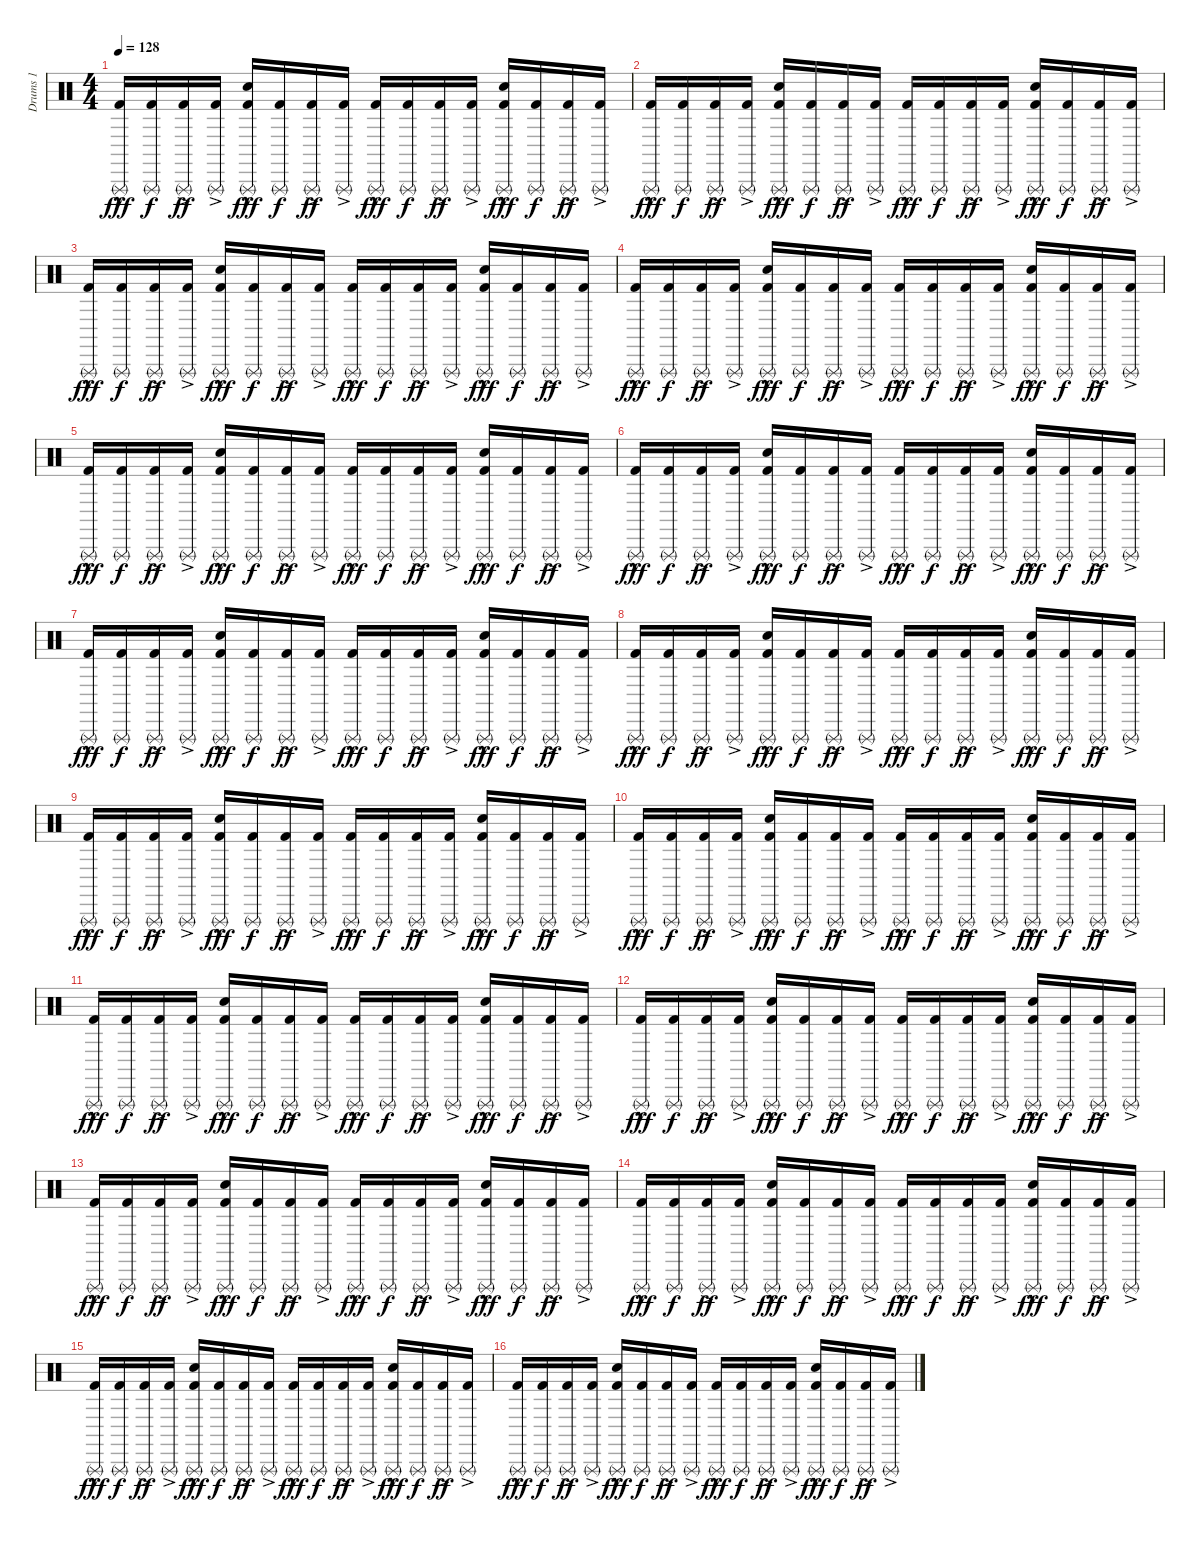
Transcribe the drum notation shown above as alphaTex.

\track ("Drums 1" "Drums 1") {instrument percussion}
\staff {score}
\articulation defaults
\ts (4 4)
\tempo 128
\clef neutral
\ks c
("Triangle (rnute)"{hac} "Kick (hit) 2"{hac}).16{dy fff} ("Triangle (rnute)" "Kick (hit) 2").16{dy f} ("Triangle (rnute)"{ac} "Kick (hit) 2").16{dy ff} ("Triangle (rnute)"{ac} "Kick (hit) 2").16 ("Triangle (rnute)"{hac} "Snare (hit) 2"{hac} "Kick (hit) 2"{hac}).16{dy fff} ("Triangle (rnute)" "Kick (hit) 2").16{dy f} ("Triangle (rnute)"{ac} "Kick (hit) 2").16{dy ff} ("Triangle (rnute)"{ac} "Kick (hit) 2").16 ("Triangle (rnute)"{hac} "Kick (hit) 2"{hac}).16{dy fff} ("Triangle (rnute)" "Kick (hit) 2").16{dy f} ("Triangle (rnute)"{ac} "Kick (hit) 2").16{dy ff} ("Triangle (rnute)"{ac} "Kick (hit) 2").16 ("Triangle (rnute)"{hac} "Snare (hit) 2"{hac} "Kick (hit) 2"{hac}).16{dy fff} ("Triangle (rnute)" "Kick (hit) 2").16{dy f} ("Triangle (rnute)"{ac} "Kick (hit) 2").16{dy ff} ("Triangle (rnute)"{ac} "Kick (hit) 2").16 |
("Triangle (rnute)"{hac} "Kick (hit) 2"{hac}).16{dy fff} ("Triangle (rnute)" "Kick (hit) 2").16{dy f} ("Triangle (rnute)"{ac} "Kick (hit) 2").16{dy ff} ("Triangle (rnute)"{ac} "Kick (hit) 2").16 ("Triangle (rnute)"{hac} "Snare (hit) 2"{hac} "Kick (hit) 2"{hac}).16{dy fff} ("Triangle (rnute)" "Kick (hit) 2").16{dy f} ("Triangle (rnute)"{ac} "Kick (hit) 2").16{dy ff} ("Triangle (rnute)"{ac} "Kick (hit) 2").16 ("Triangle (rnute)"{hac} "Kick (hit) 2"{hac}).16{dy fff} ("Triangle (rnute)" "Kick (hit) 2").16{dy f} ("Triangle (rnute)"{ac} "Kick (hit) 2").16{dy ff} ("Triangle (rnute)"{ac} "Kick (hit) 2").16 ("Triangle (rnute)"{hac} "Snare (hit) 2"{hac} "Kick (hit) 2"{hac}).16{dy fff} ("Triangle (rnute)" "Kick (hit) 2").16{dy f} ("Triangle (rnute)"{ac} "Kick (hit) 2").16{dy ff} ("Triangle (rnute)"{ac} "Kick (hit) 2").16 |
("Triangle (rnute)"{hac} "Kick (hit) 2"{hac}).16{dy fff} ("Triangle (rnute)" "Kick (hit) 2").16{dy f} ("Triangle (rnute)"{ac} "Kick (hit) 2").16{dy ff} ("Triangle (rnute)"{ac} "Kick (hit) 2").16 ("Triangle (rnute)"{hac} "Snare (hit) 2"{hac} "Kick (hit) 2"{hac}).16{dy fff} ("Triangle (rnute)" "Kick (hit) 2").16{dy f} ("Triangle (rnute)"{ac} "Kick (hit) 2").16{dy ff} ("Triangle (rnute)"{ac} "Kick (hit) 2").16 ("Triangle (rnute)"{hac} "Kick (hit) 2"{hac}).16{dy fff} ("Triangle (rnute)" "Kick (hit) 2").16{dy f} ("Triangle (rnute)"{ac} "Kick (hit) 2").16{dy ff} ("Triangle (rnute)"{ac} "Kick (hit) 2").16 ("Triangle (rnute)"{hac} "Snare (hit) 2"{hac} "Kick (hit) 2"{hac}).16{dy fff} ("Triangle (rnute)" "Kick (hit) 2").16{dy f} ("Triangle (rnute)"{ac} "Kick (hit) 2").16{dy ff} ("Triangle (rnute)"{ac} "Kick (hit) 2").16 |
("Triangle (rnute)"{hac} "Kick (hit) 2"{hac}).16{dy fff} ("Triangle (rnute)" "Kick (hit) 2").16{dy f} ("Triangle (rnute)"{ac} "Kick (hit) 2").16{dy ff} ("Triangle (rnute)"{ac} "Kick (hit) 2").16 ("Triangle (rnute)"{hac} "Snare (hit) 2"{hac} "Kick (hit) 2"{hac}).16{dy fff} ("Triangle (rnute)" "Kick (hit) 2").16{dy f} ("Triangle (rnute)"{ac} "Kick (hit) 2").16{dy ff} ("Triangle (rnute)"{ac} "Kick (hit) 2").16 ("Triangle (rnute)"{hac} "Kick (hit) 2"{hac}).16{dy fff} ("Triangle (rnute)" "Kick (hit) 2").16{dy f} ("Triangle (rnute)"{ac} "Kick (hit) 2").16{dy ff} ("Triangle (rnute)"{ac} "Kick (hit) 2").16 ("Triangle (rnute)"{hac} "Snare (hit) 2"{hac} "Kick (hit) 2"{hac}).16{dy fff} ("Triangle (rnute)" "Kick (hit) 2").16{dy f} ("Triangle (rnute)"{ac} "Kick (hit) 2").16{dy ff} ("Triangle (rnute)"{ac} "Kick (hit) 2").16 |
("Triangle (rnute)"{hac} "Kick (hit) 2"{hac}).16{dy fff} ("Triangle (rnute)" "Kick (hit) 2").16{dy f} ("Triangle (rnute)"{ac} "Kick (hit) 2").16{dy ff} ("Triangle (rnute)"{ac} "Kick (hit) 2").16 ("Triangle (rnute)"{hac} "Snare (hit) 2"{hac} "Kick (hit) 2"{hac}).16{dy fff} ("Triangle (rnute)" "Kick (hit) 2").16{dy f} ("Triangle (rnute)"{ac} "Kick (hit) 2").16{dy ff} ("Triangle (rnute)"{ac} "Kick (hit) 2").16 ("Triangle (rnute)"{hac} "Kick (hit) 2"{hac}).16{dy fff} ("Triangle (rnute)" "Kick (hit) 2").16{dy f} ("Triangle (rnute)"{ac} "Kick (hit) 2").16{dy ff} ("Triangle (rnute)"{ac} "Kick (hit) 2").16 ("Triangle (rnute)"{hac} "Snare (hit) 2"{hac} "Kick (hit) 2"{hac}).16{dy fff} ("Triangle (rnute)" "Kick (hit) 2").16{dy f} ("Triangle (rnute)"{ac} "Kick (hit) 2").16{dy ff} ("Triangle (rnute)"{ac} "Kick (hit) 2").16 |
("Triangle (rnute)"{hac} "Kick (hit) 2"{hac}).16{dy fff} ("Triangle (rnute)" "Kick (hit) 2").16{dy f} ("Triangle (rnute)"{ac} "Kick (hit) 2").16{dy ff} ("Triangle (rnute)"{ac} "Kick (hit) 2").16 ("Triangle (rnute)"{hac} "Snare (hit) 2"{hac} "Kick (hit) 2"{hac}).16{dy fff} ("Triangle (rnute)" "Kick (hit) 2").16{dy f} ("Triangle (rnute)"{ac} "Kick (hit) 2").16{dy ff} ("Triangle (rnute)"{ac} "Kick (hit) 2").16 ("Triangle (rnute)"{hac} "Kick (hit) 2"{hac}).16{dy fff} ("Triangle (rnute)" "Kick (hit) 2").16{dy f} ("Triangle (rnute)"{ac} "Kick (hit) 2").16{dy ff} ("Triangle (rnute)"{ac} "Kick (hit) 2").16 ("Triangle (rnute)"{hac} "Snare (hit) 2"{hac} "Kick (hit) 2"{hac}).16{dy fff} ("Triangle (rnute)" "Kick (hit) 2").16{dy f} ("Triangle (rnute)"{ac} "Kick (hit) 2").16{dy ff} ("Triangle (rnute)"{ac} "Kick (hit) 2").16 |
("Triangle (rnute)"{hac} "Kick (hit) 2"{hac}).16{dy fff} ("Triangle (rnute)" "Kick (hit) 2").16{dy f} ("Triangle (rnute)"{ac} "Kick (hit) 2").16{dy ff} ("Triangle (rnute)"{ac} "Kick (hit) 2").16 ("Triangle (rnute)"{hac} "Snare (hit) 2"{hac} "Kick (hit) 2"{hac}).16{dy fff} ("Triangle (rnute)" "Kick (hit) 2").16{dy f} ("Triangle (rnute)"{ac} "Kick (hit) 2").16{dy ff} ("Triangle (rnute)"{ac} "Kick (hit) 2").16 ("Triangle (rnute)"{hac} "Kick (hit) 2"{hac}).16{dy fff} ("Triangle (rnute)" "Kick (hit) 2").16{dy f} ("Triangle (rnute)"{ac} "Kick (hit) 2").16{dy ff} ("Triangle (rnute)"{ac} "Kick (hit) 2").16 ("Triangle (rnute)"{hac} "Snare (hit) 2"{hac} "Kick (hit) 2"{hac}).16{dy fff} ("Triangle (rnute)" "Kick (hit) 2").16{dy f} ("Triangle (rnute)"{ac} "Kick (hit) 2").16{dy ff} ("Triangle (rnute)"{ac} "Kick (hit) 2").16 |
("Triangle (rnute)"{hac} "Kick (hit) 2"{hac}).16{dy fff} ("Triangle (rnute)" "Kick (hit) 2").16{dy f} ("Triangle (rnute)"{ac} "Kick (hit) 2").16{dy ff} ("Triangle (rnute)"{ac} "Kick (hit) 2").16 ("Triangle (rnute)"{hac} "Snare (hit) 2"{hac} "Kick (hit) 2"{hac}).16{dy fff} ("Triangle (rnute)" "Kick (hit) 2").16{dy f} ("Triangle (rnute)"{ac} "Kick (hit) 2").16{dy ff} ("Triangle (rnute)"{ac} "Kick (hit) 2").16 ("Triangle (rnute)"{hac} "Kick (hit) 2"{hac}).16{dy fff} ("Triangle (rnute)" "Kick (hit) 2").16{dy f} ("Triangle (rnute)"{ac} "Kick (hit) 2").16{dy ff} ("Triangle (rnute)"{ac} "Kick (hit) 2").16 ("Triangle (rnute)"{hac} "Snare (hit) 2"{hac} "Kick (hit) 2"{hac}).16{dy fff} ("Triangle (rnute)" "Kick (hit) 2").16{dy f} ("Triangle (rnute)"{ac} "Kick (hit) 2").16{dy ff} ("Triangle (rnute)"{ac} "Kick (hit) 2").16 |
("Triangle (rnute)"{hac} "Kick (hit) 2"{hac}).16{dy fff} ("Triangle (rnute)" "Kick (hit) 2").16{dy f} ("Triangle (rnute)"{ac} "Kick (hit) 2").16{dy ff} ("Triangle (rnute)"{ac} "Kick (hit) 2").16 ("Triangle (rnute)"{hac} "Snare (hit) 2"{hac} "Kick (hit) 2"{hac}).16{dy fff} ("Triangle (rnute)" "Kick (hit) 2").16{dy f} ("Triangle (rnute)"{ac} "Kick (hit) 2").16{dy ff} ("Triangle (rnute)"{ac} "Kick (hit) 2").16 ("Triangle (rnute)"{hac} "Kick (hit) 2"{hac}).16{dy fff} ("Triangle (rnute)" "Kick (hit) 2").16{dy f} ("Triangle (rnute)"{ac} "Kick (hit) 2").16{dy ff} ("Triangle (rnute)"{ac} "Kick (hit) 2").16 ("Triangle (rnute)"{hac} "Snare (hit) 2"{hac} "Kick (hit) 2"{hac}).16{dy fff} ("Triangle (rnute)" "Kick (hit) 2").16{dy f} ("Triangle (rnute)"{ac} "Kick (hit) 2").16{dy ff} ("Triangle (rnute)"{ac} "Kick (hit) 2").16 |
("Triangle (rnute)"{hac} "Kick (hit) 2"{hac}).16{dy fff} ("Triangle (rnute)" "Kick (hit) 2").16{dy f} ("Triangle (rnute)"{ac} "Kick (hit) 2").16{dy ff} ("Triangle (rnute)"{ac} "Kick (hit) 2").16 ("Triangle (rnute)"{hac} "Snare (hit) 2"{hac} "Kick (hit) 2"{hac}).16{dy fff} ("Triangle (rnute)" "Kick (hit) 2").16{dy f} ("Triangle (rnute)"{ac} "Kick (hit) 2").16{dy ff} ("Triangle (rnute)"{ac} "Kick (hit) 2").16 ("Triangle (rnute)"{hac} "Kick (hit) 2"{hac}).16{dy fff} ("Triangle (rnute)" "Kick (hit) 2").16{dy f} ("Triangle (rnute)"{ac} "Kick (hit) 2").16{dy ff} ("Triangle (rnute)"{ac} "Kick (hit) 2").16 ("Triangle (rnute)"{hac} "Snare (hit) 2"{hac} "Kick (hit) 2"{hac}).16{dy fff} ("Triangle (rnute)" "Kick (hit) 2").16{dy f} ("Triangle (rnute)"{ac} "Kick (hit) 2").16{dy ff} ("Triangle (rnute)"{ac} "Kick (hit) 2").16 |
("Triangle (rnute)"{hac} "Kick (hit) 2"{hac}).16{dy fff} ("Triangle (rnute)" "Kick (hit) 2").16{dy f} ("Triangle (rnute)"{ac} "Kick (hit) 2").16{dy ff} ("Triangle (rnute)"{ac} "Kick (hit) 2").16 ("Triangle (rnute)"{hac} "Snare (hit) 2"{hac} "Kick (hit) 2"{hac}).16{dy fff} ("Triangle (rnute)" "Kick (hit) 2").16{dy f} ("Triangle (rnute)"{ac} "Kick (hit) 2").16{dy ff} ("Triangle (rnute)"{ac} "Kick (hit) 2").16 ("Triangle (rnute)"{hac} "Kick (hit) 2"{hac}).16{dy fff} ("Triangle (rnute)" "Kick (hit) 2").16{dy f} ("Triangle (rnute)"{ac} "Kick (hit) 2").16{dy ff} ("Triangle (rnute)"{ac} "Kick (hit) 2").16 ("Triangle (rnute)"{hac} "Snare (hit) 2"{hac} "Kick (hit) 2"{hac}).16{dy fff} ("Triangle (rnute)" "Kick (hit) 2").16{dy f} ("Triangle (rnute)"{ac} "Kick (hit) 2").16{dy ff} ("Triangle (rnute)"{ac} "Kick (hit) 2").16 |
("Triangle (rnute)"{hac} "Kick (hit) 2"{hac}).16{dy fff} ("Triangle (rnute)" "Kick (hit) 2").16{dy f} ("Triangle (rnute)"{ac} "Kick (hit) 2").16{dy ff} ("Triangle (rnute)"{ac} "Kick (hit) 2").16 ("Triangle (rnute)"{hac} "Snare (hit) 2"{hac} "Kick (hit) 2"{hac}).16{dy fff} ("Triangle (rnute)" "Kick (hit) 2").16{dy f} ("Triangle (rnute)"{ac} "Kick (hit) 2").16{dy ff} ("Triangle (rnute)"{ac} "Kick (hit) 2").16 ("Triangle (rnute)"{hac} "Kick (hit) 2"{hac}).16{dy fff} ("Triangle (rnute)" "Kick (hit) 2").16{dy f} ("Triangle (rnute)"{ac} "Kick (hit) 2").16{dy ff} ("Triangle (rnute)"{ac} "Kick (hit) 2").16 ("Triangle (rnute)"{hac} "Snare (hit) 2"{hac} "Kick (hit) 2"{hac}).16{dy fff} ("Triangle (rnute)" "Kick (hit) 2").16{dy f} ("Triangle (rnute)"{ac} "Kick (hit) 2").16{dy ff} ("Triangle (rnute)"{ac} "Kick (hit) 2").16 |
("Triangle (rnute)"{hac} "Kick (hit) 2"{hac}).16{dy fff} ("Triangle (rnute)" "Kick (hit) 2").16{dy f} ("Triangle (rnute)"{ac} "Kick (hit) 2").16{dy ff} ("Triangle (rnute)"{ac} "Kick (hit) 2").16 ("Triangle (rnute)"{hac} "Snare (hit) 2"{hac} "Kick (hit) 2"{hac}).16{dy fff} ("Triangle (rnute)" "Kick (hit) 2").16{dy f} ("Triangle (rnute)"{ac} "Kick (hit) 2").16{dy ff} ("Triangle (rnute)"{ac} "Kick (hit) 2").16 ("Triangle (rnute)"{hac} "Kick (hit) 2"{hac}).16{dy fff} ("Triangle (rnute)" "Kick (hit) 2").16{dy f} ("Triangle (rnute)"{ac} "Kick (hit) 2").16{dy ff} ("Triangle (rnute)"{ac} "Kick (hit) 2").16 ("Triangle (rnute)"{hac} "Snare (hit) 2"{hac} "Kick (hit) 2"{hac}).16{dy fff} ("Triangle (rnute)" "Kick (hit) 2").16{dy f} ("Triangle (rnute)"{ac} "Kick (hit) 2").16{dy ff} ("Triangle (rnute)"{ac} "Kick (hit) 2").16 |
("Triangle (rnute)"{hac} "Kick (hit) 2"{hac}).16{dy fff} ("Triangle (rnute)" "Kick (hit) 2").16{dy f} ("Triangle (rnute)"{ac} "Kick (hit) 2").16{dy ff} ("Triangle (rnute)"{ac} "Kick (hit) 2").16 ("Triangle (rnute)"{hac} "Snare (hit) 2"{hac} "Kick (hit) 2"{hac}).16{dy fff} ("Triangle (rnute)" "Kick (hit) 2").16{dy f} ("Triangle (rnute)"{ac} "Kick (hit) 2").16{dy ff} ("Triangle (rnute)"{ac} "Kick (hit) 2").16 ("Triangle (rnute)"{hac} "Kick (hit) 2"{hac}).16{dy fff} ("Triangle (rnute)" "Kick (hit) 2").16{dy f} ("Triangle (rnute)"{ac} "Kick (hit) 2").16{dy ff} ("Triangle (rnute)"{ac} "Kick (hit) 2").16 ("Triangle (rnute)"{hac} "Snare (hit) 2"{hac} "Kick (hit) 2"{hac}).16{dy fff} ("Triangle (rnute)" "Kick (hit) 2").16{dy f} ("Triangle (rnute)"{ac} "Kick (hit) 2").16{dy ff} ("Triangle (rnute)"{ac} "Kick (hit) 2").16 |
("Triangle (rnute)"{hac} "Kick (hit) 2"{hac}).16{dy fff} ("Triangle (rnute)" "Kick (hit) 2").16{dy f} ("Triangle (rnute)"{ac} "Kick (hit) 2").16{dy ff} ("Triangle (rnute)"{ac} "Kick (hit) 2").16 ("Triangle (rnute)"{hac} "Snare (hit) 2"{hac} "Kick (hit) 2"{hac}).16{dy fff} ("Triangle (rnute)" "Kick (hit) 2").16{dy f} ("Triangle (rnute)"{ac} "Kick (hit) 2").16{dy ff} ("Triangle (rnute)"{ac} "Kick (hit) 2").16 ("Triangle (rnute)"{hac} "Kick (hit) 2"{hac}).16{dy fff} ("Triangle (rnute)" "Kick (hit) 2").16{dy f} ("Triangle (rnute)"{ac} "Kick (hit) 2").16{dy ff} ("Triangle (rnute)"{ac} "Kick (hit) 2").16 ("Triangle (rnute)"{hac} "Snare (hit) 2"{hac} "Kick (hit) 2"{hac}).16{dy fff} ("Triangle (rnute)" "Kick (hit) 2").16{dy f} ("Triangle (rnute)"{ac} "Kick (hit) 2").16{dy ff} ("Triangle (rnute)"{ac} "Kick (hit) 2").16 |
("Triangle (rnute)"{hac} "Kick (hit) 2"{hac}).16{dy fff} ("Triangle (rnute)" "Kick (hit) 2").16{dy f} ("Triangle (rnute)"{ac} "Kick (hit) 2").16{dy ff} ("Triangle (rnute)"{ac} "Kick (hit) 2").16 ("Triangle (rnute)"{hac} "Snare (hit) 2"{hac} "Kick (hit) 2"{hac}).16{dy fff} ("Triangle (rnute)" "Kick (hit) 2").16{dy f} ("Triangle (rnute)"{ac} "Kick (hit) 2").16{dy ff} ("Triangle (rnute)"{ac} "Kick (hit) 2").16 ("Triangle (rnute)"{hac} "Kick (hit) 2"{hac}).16{dy fff} ("Triangle (rnute)" "Kick (hit) 2").16{dy f} ("Triangle (rnute)"{ac} "Kick (hit) 2").16{dy ff} ("Triangle (rnute)"{ac} "Kick (hit) 2").16 ("Triangle (rnute)"{hac} "Snare (hit) 2"{hac} "Kick (hit) 2"{hac}).16{dy fff} ("Triangle (rnute)" "Kick (hit) 2").16{dy f} ("Triangle (rnute)"{ac} "Kick (hit) 2").16{dy ff} ("Triangle (rnute)"{ac} "Kick (hit) 2").16
